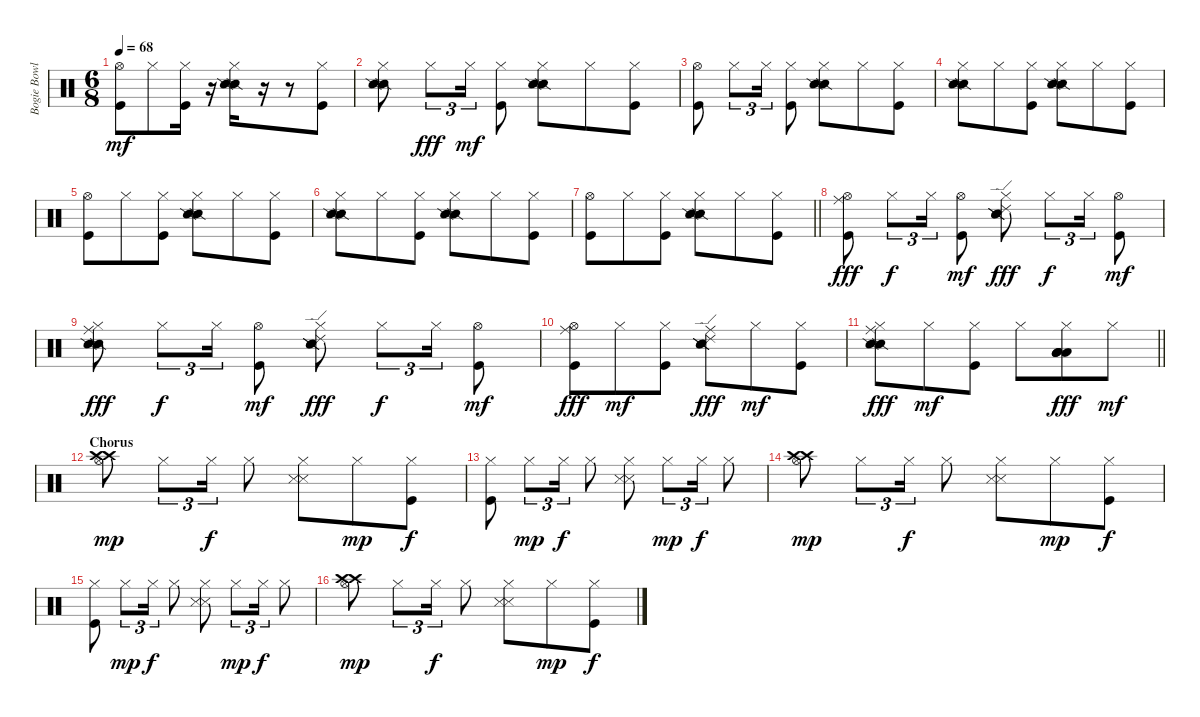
\track ("Bogie Bowles" "Bogie Bowl") {instrument percussion}
\staff {score}
\articulation defaults
\ts (6 8)
\tempo 68
\clef neutral
\ks c
("Hi-Hat (open)" "Kick (hit)").8{dy mf} "Hi-Hat (closed)".8 ("Hi-Hat (closed)" "Kick (hit)").16 r.16 ("Hi-Hat (closed)" "Snare (side stick) 2" "Snare (side stick) 2").16 r.16 r.8 ("Hi-Hat (closed)" "Kick (hit)").8 |
("Hi-Hat (closed)" "Snare (side stick) 2" "Snare (side stick) 2").8 "Hi-Hat (closed)".8{tu (3 2) dy fff} "Hi-Hat (closed)".16{tu (3 2) dy mf} ("Hi-Hat (closed)" "Kick (hit)").8 ("Hi-Hat (closed)" "Snare (side stick) 2" "Snare (side stick) 2").8 "Hi-Hat (closed)".8 ("Hi-Hat (closed)" "Kick (hit)").8 |
("Hi-Hat (open)" "Kick (hit)").8 "Hi-Hat (closed)".8{tu (3 2)} "Hi-Hat (closed)".16{tu (3 2)} ("Hi-Hat (closed)" "Kick (hit)").8 ("Hi-Hat (closed)" "Snare (side stick) 2" "Snare (side stick) 2").8 "Hi-Hat (closed)".8 ("Hi-Hat (closed)" "Kick (hit)").8 |
("Hi-Hat (closed)" "Snare (side stick) 2" "Snare (side stick) 2").8 "Hi-Hat (closed)".8 ("Hi-Hat (closed)" "Kick (hit)").8 ("Hi-Hat (closed)" "Snare (side stick) 2" "Snare (side stick) 2").8 "Hi-Hat (closed)".8 ("Hi-Hat (closed)" "Kick (hit)").8 |
("Hi-Hat (open)" "Kick (hit)").8 "Hi-Hat (closed)".8 ("Hi-Hat (closed)" "Kick (hit)").8 ("Hi-Hat (closed)" "Snare (side stick) 2" "Snare (side stick) 2").8 "Hi-Hat (closed)".8 ("Hi-Hat (closed)" "Kick (hit)").8 |
("Hi-Hat (closed)" "Snare (side stick) 2" "Snare (side stick) 2").8 "Hi-Hat (closed)".8 ("Hi-Hat (closed)" "Kick (hit)").8 ("Hi-Hat (closed)" "Snare (side stick) 2" "Snare (side stick) 2").8 "Hi-Hat (closed)".8 ("Hi-Hat (closed)" "Kick (hit)").8 |
\barLineRight lightlight
("Hi-Hat (open)" "Kick (hit)").8 "Hi-Hat (closed)".8 ("Hi-Hat (closed)" "Kick (hit)").8 ("Hi-Hat (closed)" "Snare (side stick) 2" "Snare (side stick) 2").8 "Hi-Hat (closed)".8 ("Hi-Hat (closed)" "Kick (hit)").8 |
("Hi-Hat (open)" "Kick (hit)" "Ride (middle)").8{dy fff} "Hi-Hat (closed)".8{tu (3 2) dy f} "Hi-Hat (closed)".16{tu (3 2)} ("Hi-Hat (open)" "Kick (hit)").8{dy mf} ("Hi-Hat (closed)" "Snare (side stick) 2" "Snare (side stick) 2" "Ride (edge) 2").8{dy fff} "Hi-Hat (closed)".8{tu (3 2) dy f} "Hi-Hat (closed)".16{tu (3 2)} ("Hi-Hat (open)" "Kick (hit)").8{dy mf} |
("Hi-Hat (closed)" "Snare (side stick) 2" "Snare (side stick) 2" "Ride (middle)").8{dy fff} "Hi-Hat (closed)".8{tu (3 2) dy f} "Hi-Hat (closed)".16{tu (3 2)} ("Hi-Hat (open)" "Kick (hit)").8{dy mf} ("Hi-Hat (closed)" "Snare (side stick) 2" "Snare (side stick) 2" "Ride (edge) 2").8{dy fff} "Hi-Hat (closed)".8{tu (3 2) dy f} "Hi-Hat (closed)".16{tu (3 2)} ("Hi-Hat (open)" "Kick (hit)").8{dy mf} |
("Hi-Hat (open)" "Kick (hit)" "Ride (middle)").8{dy fff} "Hi-Hat (closed)".8{dy mf} ("Hi-Hat (closed)" "Kick (hit)").8 ("Ride (middle)" "Snare (side stick) 2" "Snare (side stick) 2" "Ride (edge) 2").8{dy fff} "Hi-Hat (closed)".8{dy mf} ("Hi-Hat (closed)" "Kick (hit)").8 |
\barLineRight lightlight
("Hi-Hat (closed)" "Snare (side stick) 2" "Snare (side stick) 2" "Ride (middle)").8{dy fff} "Hi-Hat (closed)".8{dy mf} ("Hi-Hat (closed)" "Kick (hit)").8 "Hi-Hat (closed)".8 ("Hi-Hat (closed)" "Low Floor Tom (hit)" "Low Floor Tom (hit)" "Low Floor Tom (hit)" "Low Floor Tom (hit)").8{dy fff} "Hi-Hat (closed)".8{dy mf} |
\section ("" "Chorus")
("Hi-Hat (open)" "Crash high (hit)" "Crash high (hit)").8{dy mp} "Hi-Hat (closed)".8{tu (3 2)} "Hi-Hat (closed)".16{tu (3 2) dy f} "Hi-Hat (closed)".8 ("Hi-Hat (closed)" "Snare (side stick) 3" "Snare (side stick) 3").8 "Hi-Hat (closed)".8{dy mp} ("Hi-Hat (closed)" "Kick (hit)").8{dy f} |
("Hi-Hat (closed)" "Kick (hit)").8 "Hi-Hat (closed)".8{tu (3 2) dy mp} "Hi-Hat (closed)".16{tu (3 2) dy f} "Hi-Hat (closed)".8 ("Hi-Hat (closed)" "Snare (side stick) 3" "Snare (side stick) 3").8 "Hi-Hat (closed)".8{tu (3 2) dy mp} "Hi-Hat (closed)".16{tu (3 2) dy f} "Hi-Hat (closed)".8 |
("Hi-Hat (open)" "Crash high (hit)" "Crash high (hit)").8{dy mp} "Hi-Hat (closed)".8{tu (3 2)} "Hi-Hat (closed)".16{tu (3 2) dy f} "Hi-Hat (closed)".8 ("Hi-Hat (closed)" "Snare (side stick) 3" "Snare (side stick) 3").8 "Hi-Hat (closed)".8{dy mp} ("Hi-Hat (closed)" "Kick (hit)").8{dy f} |
("Hi-Hat (closed)" "Kick (hit)").8 "Hi-Hat (closed)".8{tu (3 2) dy mp} "Hi-Hat (closed)".16{tu (3 2) dy f} "Hi-Hat (closed)".8 ("Hi-Hat (closed)" "Snare (side stick) 3" "Snare (side stick) 3").8 "Hi-Hat (closed)".8{tu (3 2) dy mp} "Hi-Hat (closed)".16{tu (3 2) dy f} "Hi-Hat (closed)".8 |
("Hi-Hat (open)" "Crash high (hit)" "Crash high (hit)").8{dy mp} "Hi-Hat (closed)".8{tu (3 2)} "Hi-Hat (closed)".16{tu (3 2) dy f} "Hi-Hat (closed)".8 ("Hi-Hat (closed)" "Snare (side stick) 3" "Snare (side stick) 3").8 "Hi-Hat (closed)".8{dy mp} ("Hi-Hat (closed)" "Kick (hit)").8{dy f}
